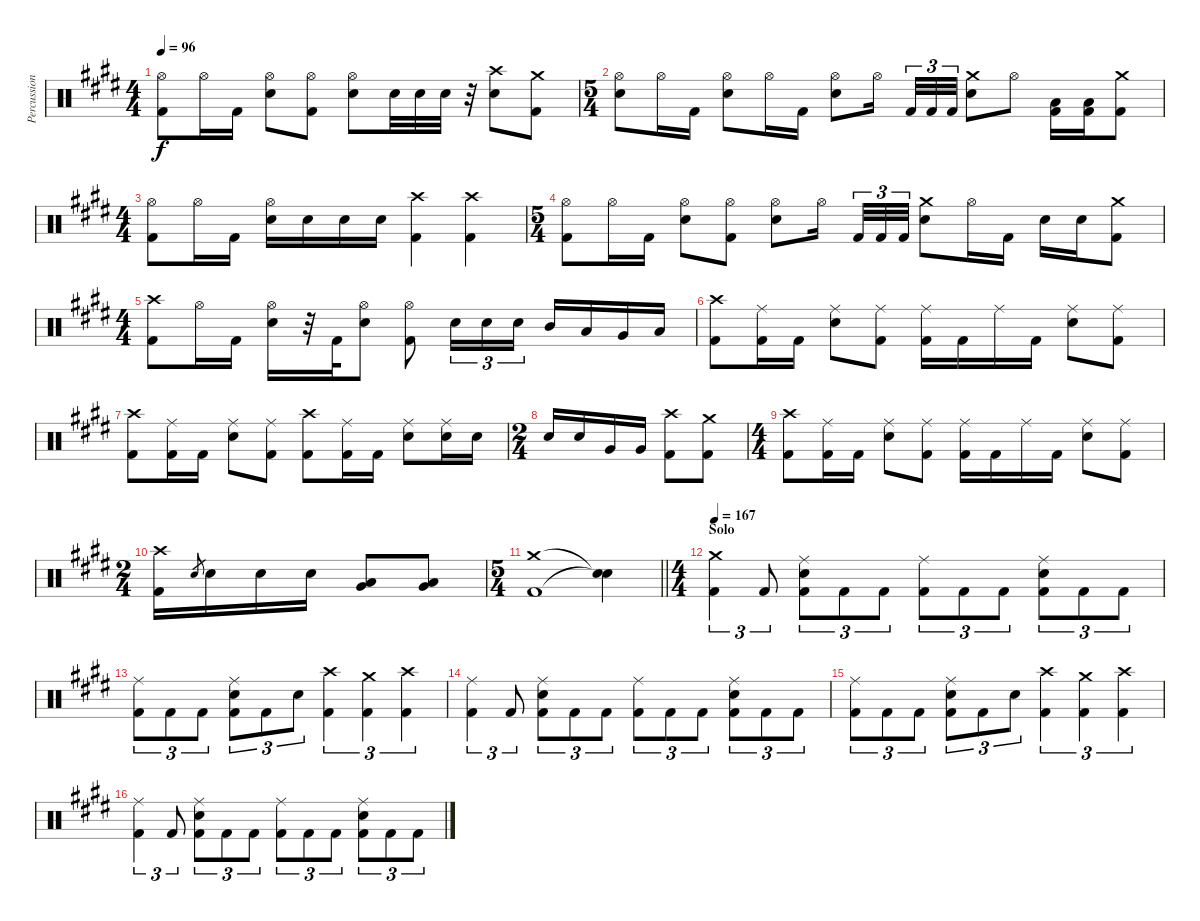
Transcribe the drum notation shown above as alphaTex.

\track ("Percussion" "Percussion") {instrument percussion}
\staff {score}
\articulation defaults
\ts (4 4)
\tempo 96
\clef neutral
\ks e
("Hi-Hat (open)" "Kick (hit) 2").8{dy f} "Hi-Hat (open)".16 "Kick (hit) 2".16 ("Hi-Hat (open)" "Snare (hit) 2").8 ("Hi-Hat (open)" "Kick (hit) 2").8 ("Hi-Hat (open)" "Snare (hit) 2").8 "Snare (hit) 2".32 "Snare (hit) 2".32 "Snare (hit) 2".32 r.32 ("Crash high (hit)" "Snare (hit) 2").8 ("Crash medium (hit)" "Kick (hit) 2").8 |
\ts (5 4)
("Hi-Hat (open)" "Snare (hit) 2").8 "Hi-Hat (open)".16 "Kick (hit) 2".16 ("Hi-Hat (open)" "Snare (hit) 2").8 "Hi-Hat (open)".16 "Kick (hit) 2".16 ("Hi-Hat (open)" "Snare (hit) 2").8 "Hi-Hat (open)".16{beam splitsecondary} "Kick (hit) 2".32{tu (3 2)} "Kick (hit) 2".32{tu (3 2)} "Kick (hit) 2".32{tu (3 2)} ("Crash medium (hit)" "Snare (hit) 2").8 "Hi-Hat (open)".8 ("Low Floor Tom (hit)" "Kick (hit) 2").16 ("Low Floor Tom (hit)" "Kick (hit) 2").16 ("Crash medium (hit)" "Kick (hit) 2").8 |
\ts (4 4)
("Hi-Hat (open)" "Kick (hit) 2").8 "Hi-Hat (open)".16 "Kick (hit) 2".16 ("Hi-Hat (open)" "Snare (hit) 2").16 "Snare (hit) 2".16 "Snare (hit) 2".16 "Snare (hit) 2".16 ("Crash high (hit)" "Kick (hit) 2").4 ("Crash high (hit)" "Kick (hit) 2").4 |
\ts (5 4)
("Hi-Hat (open)" "Kick (hit) 2").8 "Hi-Hat (open)".16 "Kick (hit) 2".16 ("Hi-Hat (open)" "Snare (hit) 2").8 ("Hi-Hat (open)" "Kick (hit) 2").8 ("Hi-Hat (open)" "Snare (hit) 2").8 "Hi-Hat (open)".16{beam splitsecondary} "Kick (hit) 2".32{tu (3 2)} "Kick (hit) 2".32{tu (3 2)} "Kick (hit) 2".32{tu (3 2)} ("Crash medium (hit)" "Snare (hit) 2").8 "Hi-Hat (open)".16 "Kick (hit) 2".16 "Snare (hit) 2".16 "Snare (hit) 2".16 ("Crash medium (hit)" "Kick (hit) 2").8 |
\ts (4 4)
("Crash high (hit)" "Kick (hit) 2").8 "Hi-Hat (open)".16 "Kick (hit) 2".16 ("Hi-Hat (open)" "Snare (hit) 2").16 r.32 "Kick (hit) 2".32 ("Hi-Hat (open)" "Snare (hit) 2").8 ("Hi-Hat (open)" "Kick (hit) 2").8 "Snare (hit) 2".16{tu (3 2)} "Snare (hit) 2".16{tu (3 2)} "Snare (hit) 2".16{tu (3 2)} "Mid Tom (hit)".16 "Low Tom (hit)".16 "Very Low Tom (hit)".16 "Low Floor Tom (hit)".16 |
("Crash high (hit)" "Kick (hit) 2").8 ("Ride (middle)" "Kick (hit) 2").16 "Kick (hit) 2".16 ("Ride (middle)" "Snare (hit) 2").8 ("Ride (middle)" "Kick (hit) 2").8 ("Ride (middle)" "Kick (hit) 2").16 "Kick (hit) 2".16 "Ride (middle)".16 "Kick (hit) 2".16 ("Ride (middle)" "Snare (hit) 2").8 ("Ride (middle)" "Kick (hit) 2").8 |
("Crash high (hit)" "Kick (hit) 2").8 ("Ride (middle)" "Kick (hit) 2").16 "Kick (hit) 2".16 ("Ride (middle)" "Snare (hit) 2").8 ("Ride (middle)" "Kick (hit) 2").8 ("Crash high (hit)" "Kick (hit) 2").8 ("Ride (middle)" "Kick (hit) 2").16 "Kick (hit) 2".16 ("Ride (middle)" "Snare (hit) 2").8 ("Ride (middle)" "Snare (hit) 2").16 "Snare (hit) 2".16 |
\ts (2 4)
"Snare (hit) 2".16 "Snare (hit) 2".16 "Very Low Tom (hit)".16 "Very Low Tom (hit)".16 ("Crash high (hit)" "Kick (hit) 2").8 ("Crash medium (hit)" "Kick (hit) 2").8 |
\ts (4 4)
("Crash high (hit)" "Kick (hit) 2").8 ("Ride (middle)" "Kick (hit) 2").16 "Kick (hit) 2".16 ("Ride (middle)" "Snare (hit) 2").8 ("Ride (middle)" "Kick (hit) 2").8 ("Ride (middle)" "Kick (hit) 2").16 "Kick (hit) 2".16 "Ride (middle)".16 "Kick (hit) 2".16 ("Ride (middle)" "Snare (hit) 2").8 ("Ride (middle)" "Kick (hit) 2").8 |
\ts (2 4)
("Crash high (hit)" "Kick (hit) 2").16 "Snare (hit) 2".8{gr} "Snare (hit) 2".16 "Snare (hit) 2".16 "Snare (hit) 2".16 ("Low Tom (hit)" "Very Low Tom (hit)").8 ("Very Low Tom (hit)" "Low Floor Tom (hit)").8 |
\ts (5 4)
\barLineRight lightlight
("Crash medium (hit)" "Kick (hit) 2").1 ("Snare (hit)"{t} "Snare (hit)"{t}).4 |
\ts (4 4)
\section ("" "Solo")
\tempo 167
("Crash medium (hit)" "Kick (hit) 2").4{tu (3 2)} "Kick (hit) 2".8{tu (3 2)} ("Ride (middle)" "Snare (hit) 2" "Kick (hit) 2").8{tu (3 2)} "Kick (hit) 2".8{tu (3 2)} "Kick (hit) 2".8{tu (3 2)} ("Ride (middle)" "Kick (hit) 2").8{tu (3 2)} "Kick (hit) 2".8{tu (3 2)} "Kick (hit) 2".8{tu (3 2)} ("Ride (middle)" "Snare (hit) 2" "Kick (hit) 2").8{tu (3 2)} "Kick (hit) 2".8{tu (3 2)} "Kick (hit) 2".8{tu (3 2)} |
("Ride (middle)" "Kick (hit) 2").8{tu (3 2)} "Kick (hit) 2".8{tu (3 2)} "Kick (hit) 2".8{tu (3 2)} ("Ride (middle)" "Snare (hit) 2" "Kick (hit) 2").8{tu (3 2)} "Kick (hit) 2".8{tu (3 2)} "Snare (hit) 2".8{tu (3 2)} ("Crash high (hit)" "Kick (hit) 2").4{tu (3 2)} ("Crash medium (hit)" "Kick (hit) 2").4{tu (3 2)} ("Crash high (hit)" "Kick (hit) 2").4{tu (3 2)} |
("Ride (middle)" "Kick (hit) 2").4{tu (3 2)} "Kick (hit) 2".8{tu (3 2)} ("Ride (middle)" "Snare (hit) 2" "Kick (hit) 2").8{tu (3 2)} "Kick (hit) 2".8{tu (3 2)} "Kick (hit) 2".8{tu (3 2)} ("Ride (middle)" "Kick (hit) 2").8{tu (3 2)} "Kick (hit) 2".8{tu (3 2)} "Kick (hit) 2".8{tu (3 2)} ("Ride (middle)" "Snare (hit) 2" "Kick (hit) 2").8{tu (3 2)} "Kick (hit) 2".8{tu (3 2)} "Kick (hit) 2".8{tu (3 2)} |
("Ride (middle)" "Kick (hit) 2").8{tu (3 2)} "Kick (hit) 2".8{tu (3 2)} "Kick (hit) 2".8{tu (3 2)} ("Ride (middle)" "Snare (hit) 2" "Kick (hit) 2").8{tu (3 2)} "Kick (hit) 2".8{tu (3 2)} "Snare (hit) 2".8{tu (3 2)} ("Crash high (hit)" "Kick (hit) 2").4{tu (3 2)} ("Crash medium (hit)" "Kick (hit) 2").4{tu (3 2)} ("Crash high (hit)" "Kick (hit) 2").4{tu (3 2)} |
("Ride (middle)" "Kick (hit) 2").4{tu (3 2)} "Kick (hit) 2".8{tu (3 2)} ("Ride (middle)" "Snare (hit) 2" "Kick (hit) 2").8{tu (3 2)} "Kick (hit) 2".8{tu (3 2)} "Kick (hit) 2".8{tu (3 2)} ("Ride (middle)" "Kick (hit) 2").8{tu (3 2)} "Kick (hit) 2".8{tu (3 2)} "Kick (hit) 2".8{tu (3 2)} ("Ride (middle)" "Snare (hit) 2" "Kick (hit) 2").8{tu (3 2)} "Kick (hit) 2".8{tu (3 2)} "Kick (hit) 2".8{tu (3 2)}
